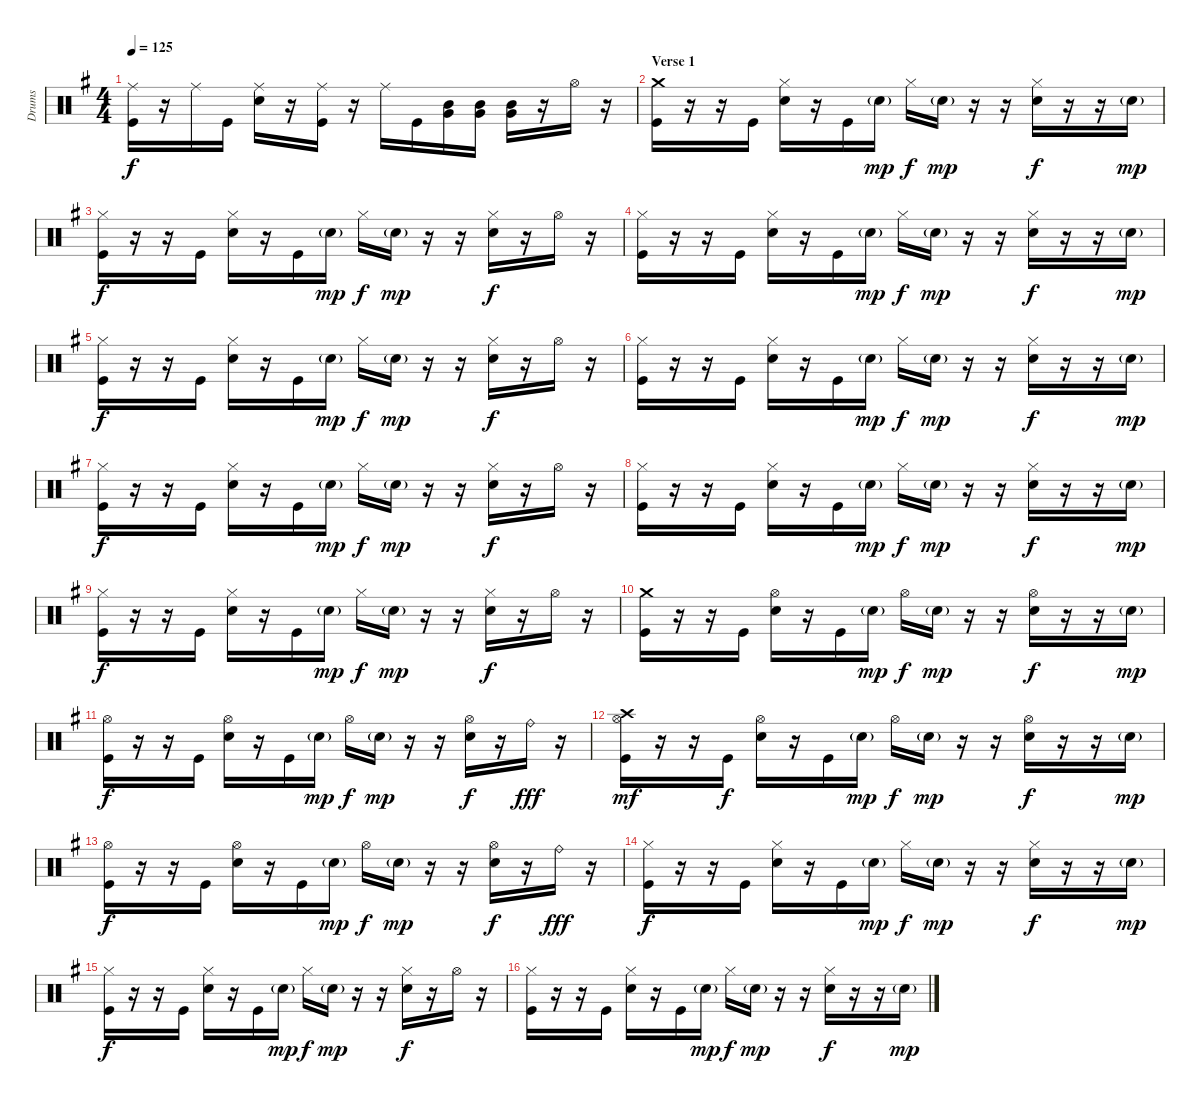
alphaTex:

\track ("Drums" "Drums") {instrument percussion}
\staff {score}
\articulation defaults
\ts (4 4)
\tempo 125
\clef neutral
\ks eminor
("Ride (middle)" "Kick (hit)").16{dy f} r.16 "Ride (middle)".16 "Kick (hit)".16 ("Ride (middle)" "Electric Snare (hit)").16 r.16 ("Ride (middle)" "Kick (hit)").16 r.16 "Ride (middle)".16 "Kick (hit)".16 ("Mid Tom (hit)" "Very Low Tom (hit)").16 ("Mid Tom (hit)" "Very Low Tom (hit)").16 ("Mid Tom (hit)" "Very Low Tom (hit)").16 r.16 "Hi-Hat (open)".16 r.16 |
\section ("" "Verse 1")
("Crash medium (hit)" "Kick (hit)").16 r.16 r.16 "Kick (hit)".16 ("Hi-Hat (closed)" "Electric Snare (hit)").16 r.16 "Kick (hit)".16 "Electric Snare (hit)"{g}.16{dy mp} "Hi-Hat (closed)".16{dy f} "Electric Snare (hit)"{g}.16{dy mp} r.16 r.16 ("Hi-Hat (closed)" "Electric Snare (hit)").16{dy f} r.16 r.16 "Electric Snare (hit)"{g}.16{dy mp} |
("Hi-Hat (closed)" "Kick (hit)").16{dy f} r.16 r.16 "Kick (hit)".16 ("Hi-Hat (closed)" "Electric Snare (hit)").16 r.16 "Kick (hit)".16 "Electric Snare (hit)"{g}.16{dy mp} "Hi-Hat (closed)".16{dy f} "Electric Snare (hit)"{g}.16{dy mp} r.16 r.16 ("Hi-Hat (closed)" "Electric Snare (hit)").16{dy f} r.16 "Hi-Hat (open)".16 r.16 |
("Hi-Hat (closed)" "Kick (hit)").16 r.16 r.16 "Kick (hit)".16 ("Hi-Hat (closed)" "Electric Snare (hit)").16 r.16 "Kick (hit)".16 "Electric Snare (hit)"{g}.16{dy mp} "Hi-Hat (closed)".16{dy f} "Electric Snare (hit)"{g}.16{dy mp} r.16 r.16 ("Hi-Hat (closed)" "Electric Snare (hit)").16{dy f} r.16 r.16 "Electric Snare (hit)"{g}.16{dy mp} |
("Hi-Hat (closed)" "Kick (hit)").16{dy f} r.16 r.16 "Kick (hit)".16 ("Hi-Hat (closed)" "Electric Snare (hit)").16 r.16 "Kick (hit)".16 "Electric Snare (hit)"{g}.16{dy mp} "Hi-Hat (closed)".16{dy f} "Electric Snare (hit)"{g}.16{dy mp} r.16 r.16 ("Hi-Hat (closed)" "Electric Snare (hit)").16{dy f} r.16 "Hi-Hat (open)".16 r.16 |
("Hi-Hat (closed)" "Kick (hit)").16 r.16 r.16 "Kick (hit)".16 ("Hi-Hat (closed)" "Electric Snare (hit)").16 r.16 "Kick (hit)".16 "Electric Snare (hit)"{g}.16{dy mp} "Hi-Hat (closed)".16{dy f} "Electric Snare (hit)"{g}.16{dy mp} r.16 r.16 ("Hi-Hat (closed)" "Electric Snare (hit)").16{dy f} r.16 r.16 "Electric Snare (hit)"{g}.16{dy mp} |
("Hi-Hat (closed)" "Kick (hit)").16{dy f} r.16 r.16 "Kick (hit)".16 ("Hi-Hat (closed)" "Electric Snare (hit)").16 r.16 "Kick (hit)".16 "Electric Snare (hit)"{g}.16{dy mp} "Hi-Hat (closed)".16{dy f} "Electric Snare (hit)"{g}.16{dy mp} r.16 r.16 ("Hi-Hat (closed)" "Electric Snare (hit)").16{dy f} r.16 "Hi-Hat (open)".16 r.16 |
("Hi-Hat (closed)" "Kick (hit)").16 r.16 r.16 "Kick (hit)".16 ("Hi-Hat (closed)" "Electric Snare (hit)").16 r.16 "Kick (hit)".16 "Electric Snare (hit)"{g}.16{dy mp} "Hi-Hat (closed)".16{dy f} "Electric Snare (hit)"{g}.16{dy mp} r.16 r.16 ("Hi-Hat (closed)" "Electric Snare (hit)").16{dy f} r.16 r.16 "Electric Snare (hit)"{g}.16{dy mp} |
("Hi-Hat (closed)" "Kick (hit)").16{dy f} r.16 r.16 "Kick (hit)".16 ("Hi-Hat (closed)" "Electric Snare (hit)").16 r.16 "Kick (hit)".16 "Electric Snare (hit)"{g}.16{dy mp} "Hi-Hat (closed)".16{dy f} "Electric Snare (hit)"{g}.16{dy mp} r.16 r.16 ("Hi-Hat (closed)" "Electric Snare (hit)").16{dy f} r.16 "Hi-Hat (open)".16 r.16 |
("Crash medium (hit)" "Kick (hit)").16 r.16 r.16 "Kick (hit)".16 ("Hi-Hat (open)" "Electric Snare (hit)").16 r.16 "Kick (hit)".16 "Electric Snare (hit)"{g}.16{dy mp} "Hi-Hat (open)".16{dy f} "Electric Snare (hit)"{g}.16{dy mp} r.16 r.16 ("Hi-Hat (open)" "Electric Snare (hit)").16{dy f} r.16 r.16 "Electric Snare (hit)"{g}.16{dy mp} |
("Hi-Hat (open)" "Kick (hit)").16{dy f} r.16 r.16 "Kick (hit)".16 ("Hi-Hat (open)" "Electric Snare (hit)").16 r.16 "Kick (hit)".16 "Electric Snare (hit)"{g}.16{dy mp} "Hi-Hat (open)".16{dy f} "Electric Snare (hit)"{g}.16{dy mp} r.16 r.16 ("Hi-Hat (open)" "Electric Snare (hit)").16{dy f} r.16 "Ride (bell)".16{dy fff} r.16 |
("Crash high (hit)" "Hi-Hat (open)" "Kick (hit)").16{dy mf} r.16 r.16 "Kick (hit)".16{dy f} ("Hi-Hat (open)" "Electric Snare (hit)").16 r.16 "Kick (hit)".16 "Electric Snare (hit)"{g}.16{dy mp} "Hi-Hat (open)".16{dy f} "Electric Snare (hit)"{g}.16{dy mp} r.16 r.16 ("Hi-Hat (open)" "Electric Snare (hit)").16{dy f} r.16 r.16 "Electric Snare (hit)"{g}.16{dy mp} |
("Hi-Hat (open)" "Kick (hit)").16{dy f} r.16 r.16 "Kick (hit)".16 ("Hi-Hat (open)" "Electric Snare (hit)").16 r.16 "Kick (hit)".16 "Electric Snare (hit)"{g}.16{dy mp} "Hi-Hat (open)".16{dy f} "Electric Snare (hit)"{g}.16{dy mp} r.16 r.16 ("Hi-Hat (open)" "Electric Snare (hit)").16{dy f} r.16 "Ride (bell)".16{dy fff} r.16 |
("Hi-Hat (closed)" "Kick (hit)").16{dy f} r.16 r.16 "Kick (hit)".16 ("Hi-Hat (closed)" "Electric Snare (hit)").16 r.16 "Kick (hit)".16 "Electric Snare (hit)"{g}.16{dy mp} "Hi-Hat (closed)".16{dy f} "Electric Snare (hit)"{g}.16{dy mp} r.16 r.16 ("Hi-Hat (closed)" "Electric Snare (hit)").16{dy f} r.16 r.16 "Electric Snare (hit)"{g}.16{dy mp} |
("Hi-Hat (closed)" "Kick (hit)").16{dy f} r.16 r.16 "Kick (hit)".16 ("Hi-Hat (closed)" "Electric Snare (hit)").16 r.16 "Kick (hit)".16 "Electric Snare (hit)"{g}.16{dy mp} "Hi-Hat (closed)".16{dy f} "Electric Snare (hit)"{g}.16{dy mp} r.16 r.16 ("Hi-Hat (closed)" "Electric Snare (hit)").16{dy f} r.16 "Hi-Hat (open)".16 r.16 |
("Hi-Hat (closed)" "Kick (hit)").16 r.16 r.16 "Kick (hit)".16 ("Hi-Hat (closed)" "Electric Snare (hit)").16 r.16 "Kick (hit)".16 "Electric Snare (hit)"{g}.16{dy mp} "Hi-Hat (closed)".16{dy f} "Electric Snare (hit)"{g}.16{dy mp} r.16 r.16 ("Hi-Hat (closed)" "Electric Snare (hit)").16{dy f} r.16 r.16 "Electric Snare (hit)"{g}.16{dy mp}
